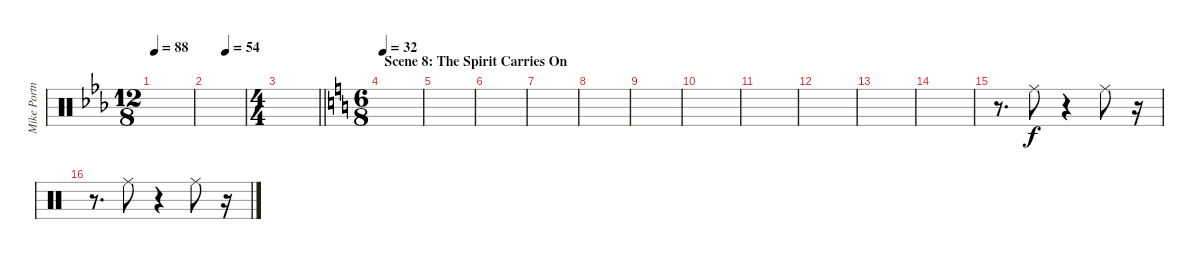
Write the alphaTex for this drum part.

\track ("Mike Portnoy" "Mike Portn") {instrument percussion}
\staff {score}
\articulation defaults
\ts (12 8)
\tempo 88
\clef neutral
\ks eb
|
\tempo (54 0.5)
|
\ts (4 4)
\barLineRight lightlight
|
\ts (6 8)
\section ("" "Scene 8: The Spirit Carries On")
\tempo 32
\ks c
|
|
|
|
|
|
|
|
|
|
|
r.8{d volume 12} "Ride (middle)".8{dy f} r.4 "Ride (middle)".8 r.16 |
r.8{d} "Ride (middle)".8 r.4 "Ride (middle)".8 r.16
